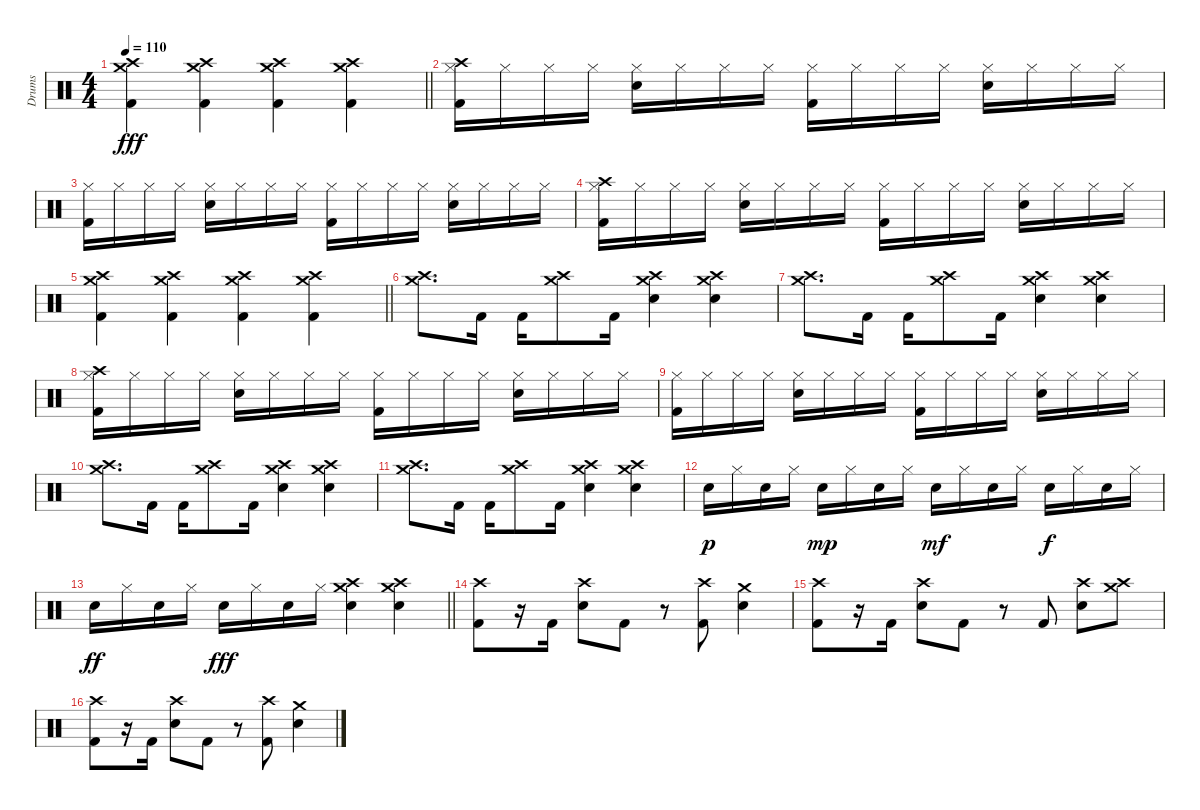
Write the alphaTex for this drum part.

\track ("Drums" "Drums") {instrument percussion}
\staff {score}
\articulation defaults
\ts (4 4)
\tempo 110
\clef neutral
\barLineRight lightlight
\ks c
("Crash high (hit)" "Crash medium (hit)" "Kick (hit) 2").4{dy fff} ("Crash high (hit)" "Crash medium (hit)" "Kick (hit) 2").4 ("Crash high (hit)" "Crash medium (hit)" "Kick (hit) 2").4 ("Crash high (hit)" "Crash medium (hit)" "Kick (hit) 2").4 |
("Crash high (hit)" "Hi-Hat (closed)" "Kick (hit) 2").16 "Hi-Hat (closed)".16 "Hi-Hat (closed)".16 "Hi-Hat (closed)".16 ("Hi-Hat (closed)" "Electric Snare (hit)").16 "Hi-Hat (closed)".16 "Hi-Hat (closed)".16 "Hi-Hat (closed)".16 ("Hi-Hat (closed)" "Kick (hit) 2").16 "Hi-Hat (closed)".16 "Hi-Hat (closed)".16 "Hi-Hat (closed)".16 ("Hi-Hat (closed)" "Electric Snare (hit)").16 "Hi-Hat (closed)".16 "Hi-Hat (closed)".16 "Hi-Hat (closed)".16 |
("Hi-Hat (closed)" "Kick (hit) 2").16 "Hi-Hat (closed)".16 "Hi-Hat (closed)".16 "Hi-Hat (closed)".16 ("Hi-Hat (closed)" "Electric Snare (hit)").16 "Hi-Hat (closed)".16 "Hi-Hat (closed)".16 "Hi-Hat (closed)".16 ("Hi-Hat (closed)" "Kick (hit) 2").16 "Hi-Hat (closed)".16 "Hi-Hat (closed)".16 "Hi-Hat (closed)".16 ("Hi-Hat (closed)" "Electric Snare (hit)").16 "Hi-Hat (closed)".16 "Hi-Hat (closed)".16 "Hi-Hat (closed)".16 |
("Crash high (hit)" "Hi-Hat (closed)" "Kick (hit) 2").16 "Hi-Hat (closed)".16 "Hi-Hat (closed)".16 "Hi-Hat (closed)".16 ("Hi-Hat (closed)" "Electric Snare (hit)").16 "Hi-Hat (closed)".16 "Hi-Hat (closed)".16 "Hi-Hat (closed)".16 ("Hi-Hat (closed)" "Kick (hit) 2").16 "Hi-Hat (closed)".16 "Hi-Hat (closed)".16 "Hi-Hat (closed)".16 ("Hi-Hat (closed)" "Electric Snare (hit)").16 "Hi-Hat (closed)".16 "Hi-Hat (closed)".16 "Hi-Hat (closed)".16 |
\barLineRight lightlight
("Crash high (hit)" "Crash medium (hit)" "Kick (hit) 2").4 ("Crash high (hit)" "Crash medium (hit)" "Kick (hit) 2").4 ("Crash high (hit)" "Crash medium (hit)" "Kick (hit) 2").4 ("Crash high (hit)" "Crash medium (hit)" "Kick (hit) 2").4 |
("Crash high (hit)" "Crash medium (hit)").8{d} "Kick (hit) 2".16 "Kick (hit) 2".16 ("Crash high (hit)" "Crash medium (hit)").8 "Kick (hit) 2".16 ("Crash high (hit)" "Crash medium (hit)" "Electric Snare (hit)").4 ("Crash high (hit)" "Crash medium (hit)" "Electric Snare (hit)").4 |
("Crash high (hit)" "Crash medium (hit)").8{d} "Kick (hit) 2".16 "Kick (hit) 2".16 ("Crash high (hit)" "Crash medium (hit)").8 "Kick (hit) 2".16 ("Crash high (hit)" "Crash medium (hit)" "Electric Snare (hit)").4 ("Crash high (hit)" "Crash medium (hit)" "Electric Snare (hit)").4 |
("Crash high (hit)" "Hi-Hat (closed)" "Kick (hit) 2").16 "Hi-Hat (closed)".16 "Hi-Hat (closed)".16 "Hi-Hat (closed)".16 ("Hi-Hat (closed)" "Electric Snare (hit)").16 "Hi-Hat (closed)".16 "Hi-Hat (closed)".16 "Hi-Hat (closed)".16 ("Hi-Hat (closed)" "Kick (hit) 2").16 "Hi-Hat (closed)".16 "Hi-Hat (closed)".16 "Hi-Hat (closed)".16 ("Hi-Hat (closed)" "Electric Snare (hit)").16 "Hi-Hat (closed)".16 "Hi-Hat (closed)".16 "Hi-Hat (closed)".16 |
("Hi-Hat (closed)" "Kick (hit) 2").16 "Hi-Hat (closed)".16 "Hi-Hat (closed)".16 "Hi-Hat (closed)".16 ("Hi-Hat (closed)" "Electric Snare (hit)").16 "Hi-Hat (closed)".16 "Hi-Hat (closed)".16 "Hi-Hat (closed)".16 ("Hi-Hat (closed)" "Kick (hit) 2").16 "Hi-Hat (closed)".16 "Hi-Hat (closed)".16 "Hi-Hat (closed)".16 ("Hi-Hat (closed)" "Electric Snare (hit)").16 "Hi-Hat (closed)".16 "Hi-Hat (closed)".16 "Hi-Hat (closed)".16 |
("Crash high (hit)" "Crash medium (hit)").8{d} "Kick (hit) 2".16 "Kick (hit) 2".16 ("Crash high (hit)" "Crash medium (hit)").8 "Kick (hit) 2".16 ("Crash high (hit)" "Crash medium (hit)" "Electric Snare (hit)").4 ("Crash high (hit)" "Crash medium (hit)" "Electric Snare (hit)").4 |
("Crash high (hit)" "Crash medium (hit)").8{d} "Kick (hit) 2".16 "Kick (hit) 2".16 ("Crash high (hit)" "Crash medium (hit)").8 "Kick (hit) 2".16 ("Crash high (hit)" "Crash medium (hit)" "Electric Snare (hit)").4 ("Crash high (hit)" "Crash medium (hit)" "Electric Snare (hit)").4 |
"Electric Snare (hit)".16{dy p} "Hi-Hat (closed)".16 "Electric Snare (hit)".16 "Hi-Hat (closed)".16 "Electric Snare (hit)".16{dy mp} "Hi-Hat (closed)".16 "Electric Snare (hit)".16 "Hi-Hat (closed)".16 "Electric Snare (hit)".16{dy mf} "Hi-Hat (closed)".16 "Electric Snare (hit)".16 "Hi-Hat (closed)".16 "Electric Snare (hit)".16{dy f} "Hi-Hat (closed)".16 "Electric Snare (hit)".16 "Hi-Hat (closed)".16 |
\barLineRight lightlight "Electric Snare (hit)".16{dy ff} "Hi-Hat (closed)".16 "Electric Snare (hit)".16 "Hi-Hat (closed)".16 "Electric Snare (hit)".16{dy fff} "Hi-Hat (closed)".16 "Electric Snare (hit)".16 "Hi-Hat (closed)".16
("Crash high (hit)" "Crash medium (hit)" "Electric Snare (hit)").4 ("Crash high (hit)" "Crash medium (hit)" "Electric Snare (hit)").4 |
("Crash high (hit)" "Kick (hit) 2").8 r.16 "Kick (hit) 2".16 ("Crash high (hit)" "Electric Snare (hit)").8 "Kick (hit) 2".8 r.8 ("Crash high (hit)" "Kick (hit) 2").8 ("Crash medium (hit)" "Electric Snare (hit)").4 |
("Crash high (hit)" "Kick (hit) 2").8 r.16 "Kick (hit) 2".16 ("Crash high (hit)" "Electric Snare (hit)").8 "Kick (hit) 2".8 r.8 "Kick (hit) 2".8 ("Crash high (hit)" "Electric Snare (hit)").8 ("Crash high (hit)" "Crash medium (hit)").8 |
("Crash high (hit)" "Kick (hit) 2").8 r.16 "Kick (hit) 2".16 ("Crash high (hit)" "Electric Snare (hit)").8 "Kick (hit) 2".8 r.8 ("Crash high (hit)" "Kick (hit) 2").8 ("Crash medium (hit)" "Electric Snare (hit)").4
